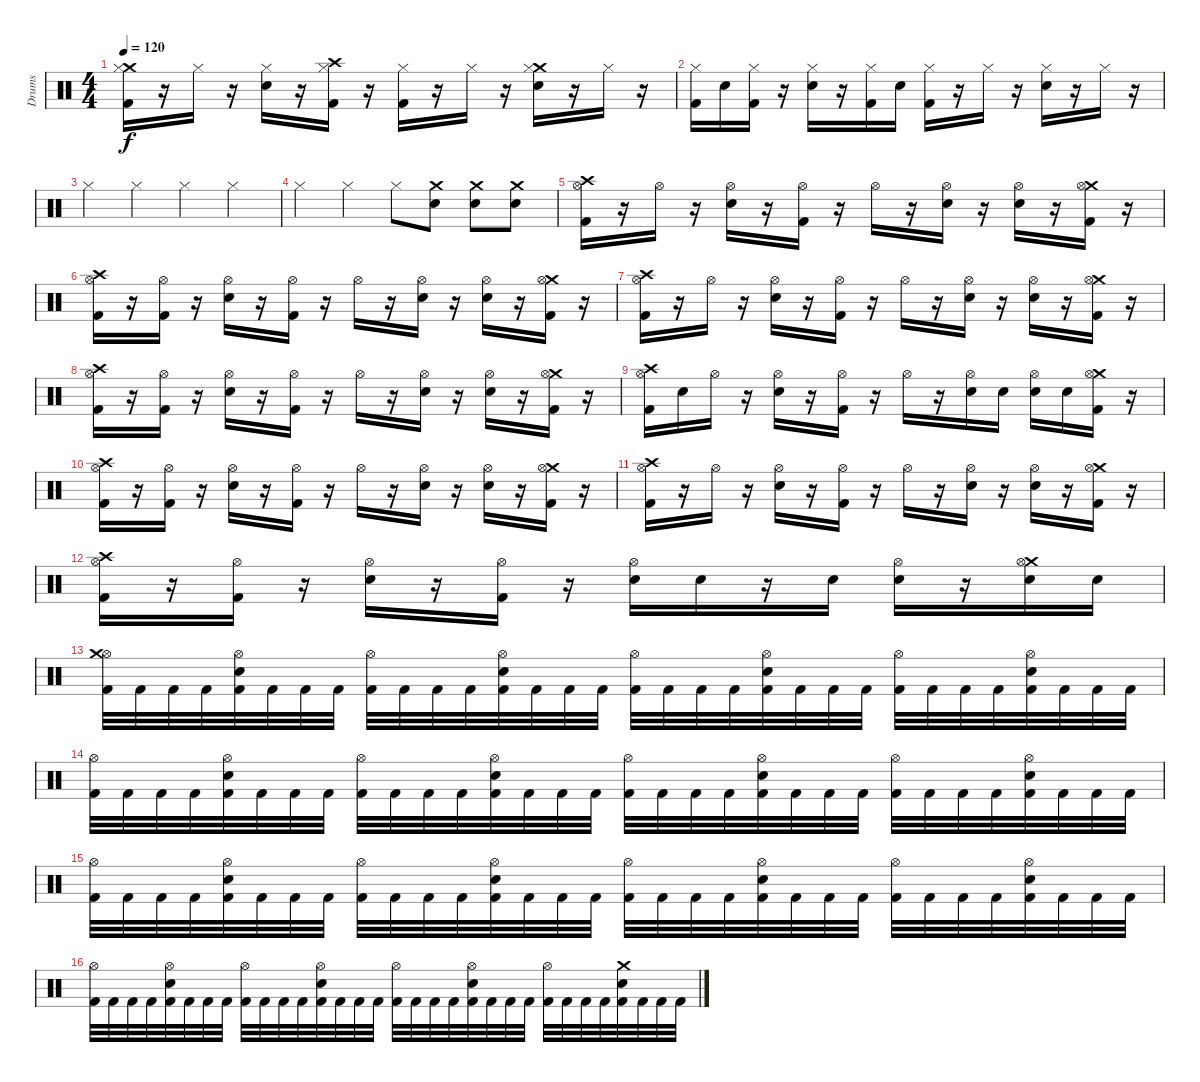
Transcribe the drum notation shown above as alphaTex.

\track ("Drums" "Drums") {instrument percussion}
\staff {score}
\articulation defaults
\ts (4 4)
\tempo 120
\clef neutral
\ks c
("Crash medium (hit)" "Hi-Hat (closed)" "Kick (hit) 2").16{dy f} r.16 "Hi-Hat (closed)".16 r.16 ("Hi-Hat (closed)" "Electric Snare (hit)").16 r.16 ("Crash high (hit)" "Hi-Hat (closed)" "Kick (hit) 2").16 r.16 ("Hi-Hat (closed)" "Kick (hit) 2").16 r.16 "Hi-Hat (closed)".16 r.16 ("Crash medium (hit)" "Hi-Hat (closed)" "Electric Snare (hit)").16 r.16 "Hi-Hat (closed)".16 r.16 |
("Hi-Hat (closed)" "Kick (hit) 2").16 "Electric Snare (hit)".16 ("Hi-Hat (closed)" "Kick (hit) 2").16 r.16 ("Hi-Hat (closed)" "Electric Snare (hit)").16 r.16 ("Hi-Hat (closed)" "Kick (hit) 2").16 "Electric Snare (hit)".16 ("Hi-Hat (closed)" "Kick (hit) 2").16 r.16 "Hi-Hat (closed)".16 r.16 ("Hi-Hat (closed)" "Electric Snare (hit)").16 r.16 "Hi-Hat (closed)".16 r.16 |
"Hi-Hat (closed)".4 "Hi-Hat (closed)".4 "Hi-Hat (closed)".4 "Hi-Hat (closed)".4 |
"Hi-Hat (closed)".4 "Hi-Hat (closed)".4 "Hi-Hat (closed)".8 ("Crash medium (hit)" "Electric Snare (hit)").8 ("Crash medium (hit)" "Electric Snare (hit)").8 ("Crash medium (hit)" "Electric Snare (hit)").8 |
("Crash high (hit)" "Hi-Hat (open)" "Kick (hit) 2").16 r.16 "Hi-Hat (open)".16 r.16 ("Hi-Hat (open)" "Electric Snare (hit)").16 r.16 ("Hi-Hat (open)" "Kick (hit) 2").16 r.16 "Hi-Hat (open)".16 r.16 ("Hi-Hat (open)" "Electric Snare (hit)").16 r.16 ("Hi-Hat (open)" "Electric Snare (hit)").16 r.16 ("Crash medium (hit)" "Hi-Hat (open)" "Kick (hit) 2").16 r.16 |
("Crash high (hit)" "Hi-Hat (open)" "Kick (hit) 2").16 r.16 ("Hi-Hat (open)" "Kick (hit) 2").16 r.16 ("Hi-Hat (open)" "Electric Snare (hit)").16 r.16 ("Hi-Hat (open)" "Kick (hit) 2").16 r.16 "Hi-Hat (open)".16 r.16 ("Hi-Hat (open)" "Electric Snare (hit)").16 r.16 ("Hi-Hat (open)" "Electric Snare (hit)").16 r.16 ("Crash medium (hit)" "Hi-Hat (open)" "Kick (hit) 2").16 r.16 |
("Crash high (hit)" "Hi-Hat (open)" "Kick (hit) 2").16 r.16 "Hi-Hat (open)".16 r.16 ("Hi-Hat (open)" "Electric Snare (hit)").16 r.16 ("Hi-Hat (open)" "Kick (hit) 2").16 r.16 "Hi-Hat (open)".16 r.16 ("Hi-Hat (open)" "Electric Snare (hit)").16 r.16 ("Hi-Hat (open)" "Electric Snare (hit)").16 r.16 ("Crash medium (hit)" "Hi-Hat (open)" "Kick (hit) 2").16 r.16 |
("Crash high (hit)" "Hi-Hat (open)" "Kick (hit) 2").16 r.16 ("Hi-Hat (open)" "Kick (hit) 2").16 r.16 ("Hi-Hat (open)" "Electric Snare (hit)").16 r.16 ("Hi-Hat (open)" "Kick (hit) 2").16 r.16 "Hi-Hat (open)".16 r.16 ("Hi-Hat (open)" "Electric Snare (hit)").16 r.16 ("Hi-Hat (open)" "Electric Snare (hit)").16 r.16 ("Crash medium (hit)" "Hi-Hat (open)" "Kick (hit) 2").16 r.16 |
("Crash high (hit)" "Hi-Hat (open)" "Kick (hit) 2").16 "Electric Snare (hit)".16 "Hi-Hat (open)".16 r.16 ("Hi-Hat (open)" "Electric Snare (hit)").16 r.16 ("Hi-Hat (open)" "Kick (hit) 2").16 r.16 "Hi-Hat (open)".16 r.16 ("Hi-Hat (open)" "Electric Snare (hit)").16 "Electric Snare (hit)".16 ("Hi-Hat (open)" "Electric Snare (hit)").16 "Electric Snare (hit)".16 ("Crash medium (hit)" "Hi-Hat (open)" "Kick (hit) 2").16 r.16 |
("Crash high (hit)" "Hi-Hat (open)" "Kick (hit) 2").16 r.16 ("Hi-Hat (open)" "Kick (hit) 2").16 r.16 ("Hi-Hat (open)" "Electric Snare (hit)").16 r.16 ("Hi-Hat (open)" "Kick (hit) 2").16 r.16 "Hi-Hat (open)".16 r.16 ("Hi-Hat (open)" "Electric Snare (hit)").16 r.16 ("Hi-Hat (open)" "Electric Snare (hit)").16 r.16 ("Crash medium (hit)" "Hi-Hat (open)" "Kick (hit) 2").16 r.16 |
("Crash high (hit)" "Hi-Hat (open)" "Kick (hit) 2").16 r.16 "Hi-Hat (open)".16 r.16 ("Hi-Hat (open)" "Electric Snare (hit)").16 r.16 ("Hi-Hat (open)" "Kick (hit) 2").16 r.16 "Hi-Hat (open)".16 r.16 ("Hi-Hat (open)" "Electric Snare (hit)").16 r.16 ("Hi-Hat (open)" "Electric Snare (hit)").16 r.16 ("Crash medium (hit)" "Hi-Hat (open)" "Kick (hit) 2").16 r.16 |
("Crash high (hit)" "Hi-Hat (open)" "Kick (hit) 2").16 r.16 ("Hi-Hat (open)" "Kick (hit) 2").16 r.16 ("Hi-Hat (open)" "Electric Snare (hit)").16 r.16 ("Hi-Hat (open)" "Kick (hit) 2").16 r.16 ("Hi-Hat (open)" "Electric Snare (hit)").16 "Electric Snare (hit)".16 r.16 "Electric Snare (hit)".16 ("Hi-Hat (open)" "Electric Snare (hit)").16 r.16 ("Crash medium (hit)" "Hi-Hat (open)" "Electric Snare (hit)").16 "Electric Snare (hit)".16 |
("Hi-Hat (open)" "Crash medium (hit)" "Kick (hit) 2").32 "Kick (hit) 2".32 "Kick (hit) 2".32 "Kick (hit) 2".32 ("Hi-Hat (open)" "Electric Snare (hit)" "Kick (hit) 2").32 "Kick (hit) 2".32 "Kick (hit) 2".32 "Kick (hit) 2".32 ("Hi-Hat (open)" "Kick (hit) 2").32 "Kick (hit) 2".32 "Kick (hit) 2".32 "Kick (hit) 2".32 ("Hi-Hat (open)" "Electric Snare (hit)" "Kick (hit) 2").32 "Kick (hit) 2".32 "Kick (hit) 2".32 "Kick (hit) 2".32 ("Hi-Hat (open)" "Kick (hit) 2").32 "Kick (hit) 2".32 "Kick (hit) 2".32 "Kick (hit) 2".32 ("Hi-Hat (open)" "Electric Snare (hit)" "Kick (hit) 2").32 "Kick (hit) 2".32 "Kick (hit) 2".32 "Kick (hit) 2".32 ("Hi-Hat (open)" "Kick (hit) 2").32 "Kick (hit) 2".32 "Kick (hit) 2".32 "Kick (hit) 2".32 ("Hi-Hat (open)" "Electric Snare (hit)" "Kick (hit) 2").32 "Kick (hit) 2".32 "Kick (hit) 2".32 "Kick (hit) 2".32 |
("Hi-Hat (open)" "Kick (hit) 2").32 "Kick (hit) 2".32 "Kick (hit) 2".32 "Kick (hit) 2".32 ("Hi-Hat (open)" "Electric Snare (hit)" "Kick (hit) 2").32 "Kick (hit) 2".32 "Kick (hit) 2".32 "Kick (hit) 2".32 ("Hi-Hat (open)" "Kick (hit) 2").32 "Kick (hit) 2".32 "Kick (hit) 2".32 "Kick (hit) 2".32 ("Hi-Hat (open)" "Electric Snare (hit)" "Kick (hit) 2").32 "Kick (hit) 2".32 "Kick (hit) 2".32 "Kick (hit) 2".32 ("Hi-Hat (open)" "Kick (hit) 2").32 "Kick (hit) 2".32 "Kick (hit) 2".32 "Kick (hit) 2".32 ("Hi-Hat (open)" "Electric Snare (hit)" "Kick (hit) 2").32 "Kick (hit) 2".32 "Kick (hit) 2".32 "Kick (hit) 2".32 ("Hi-Hat (open)" "Kick (hit) 2").32 "Kick (hit) 2".32 "Kick (hit) 2".32 "Kick (hit) 2".32 ("Hi-Hat (open)" "Electric Snare (hit)" "Kick (hit) 2").32 "Kick (hit) 2".32 "Kick (hit) 2".32 "Kick (hit) 2".32 |
("Hi-Hat (open)" "Kick (hit) 2").32 "Kick (hit) 2".32 "Kick (hit) 2".32 "Kick (hit) 2".32 ("Hi-Hat (open)" "Electric Snare (hit)" "Kick (hit) 2").32 "Kick (hit) 2".32 "Kick (hit) 2".32 "Kick (hit) 2".32 ("Hi-Hat (open)" "Kick (hit) 2").32 "Kick (hit) 2".32 "Kick (hit) 2".32 "Kick (hit) 2".32 ("Hi-Hat (open)" "Electric Snare (hit)" "Kick (hit) 2").32 "Kick (hit) 2".32 "Kick (hit) 2".32 "Kick (hit) 2".32 ("Hi-Hat (open)" "Kick (hit) 2").32 "Kick (hit) 2".32 "Kick (hit) 2".32 "Kick (hit) 2".32 ("Hi-Hat (open)" "Electric Snare (hit)" "Kick (hit) 2").32 "Kick (hit) 2".32 "Kick (hit) 2".32 "Kick (hit) 2".32 ("Hi-Hat (open)" "Kick (hit) 2").32 "Kick (hit) 2".32 "Kick (hit) 2".32 "Kick (hit) 2".32 ("Hi-Hat (open)" "Electric Snare (hit)" "Kick (hit) 2").32 "Kick (hit) 2".32 "Kick (hit) 2".32 "Kick (hit) 2".32 |
("Hi-Hat (open)" "Kick (hit) 2").32 "Kick (hit) 2".32 "Kick (hit) 2".32 "Kick (hit) 2".32 ("Hi-Hat (open)" "Electric Snare (hit)" "Kick (hit) 2").32 "Kick (hit) 2".32 "Kick (hit) 2".32 "Kick (hit) 2".32 ("Hi-Hat (open)" "Kick (hit) 2").32 "Kick (hit) 2".32 "Kick (hit) 2".32 "Kick (hit) 2".32 ("Hi-Hat (open)" "Electric Snare (hit)" "Kick (hit) 2").32 "Kick (hit) 2".32 "Kick (hit) 2".32 "Kick (hit) 2".32 ("Hi-Hat (open)" "Kick (hit) 2").32 "Kick (hit) 2".32 "Kick (hit) 2".32 "Kick (hit) 2".32 ("Hi-Hat (open)" "Electric Snare (hit)" "Kick (hit) 2").32 "Kick (hit) 2".32 "Kick (hit) 2".32 "Kick (hit) 2".32 ("Hi-Hat (open)" "Kick (hit) 2").32 "Kick (hit) 2".32 "Kick (hit) 2".32 "Kick (hit) 2".32 ("Crash medium (hit)" "Electric Snare (hit)" "Kick (hit) 2").32 "Kick (hit) 2".32 "Kick (hit) 2".32 "Kick (hit) 2".32
